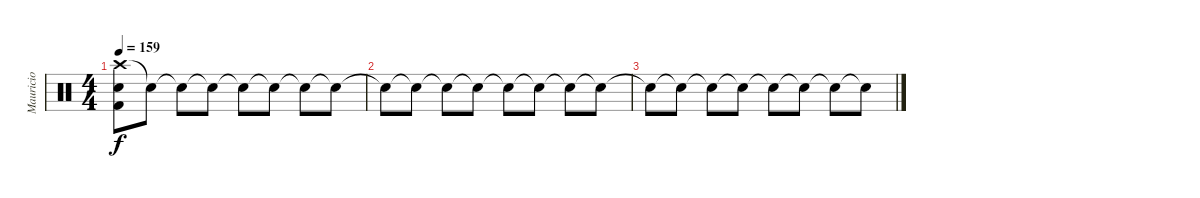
\track ("Mauricio" "Mauricio") {instrument percussion}
\staff {score}
\articulation defaults
\ts (4 4)
\tempo 159
\clef neutral
\ks c
("Crash high (hit)" "Snare (hit) 2" "Kick (hit) 2").8{dy f} "Snare (hit)"{t}.8 "Snare (hit)"{t}.8 "Snare (hit)"{t}.8 "Snare (hit)"{t}.8 "Snare (hit)"{t}.8 "Snare (hit)"{t}.8 "Snare (hit)"{t}.8 |
"Snare (hit)"{t}.8 "Snare (hit)"{t}.8 "Snare (hit)"{t}.8 "Snare (hit)"{t}.8 "Snare (hit)"{t}.8 "Snare (hit)"{t}.8 "Snare (hit)"{t}.8 "Snare (hit)"{t}.8 |
"Snare (hit)"{t}.8 "Snare (hit)"{t}.8 "Snare (hit)"{t}.8 "Snare (hit)"{t}.8 "Snare (hit)"{t}.8 "Snare (hit)"{t}.8 "Snare (hit)"{t}.8 "Snare (hit)"{t}.8
